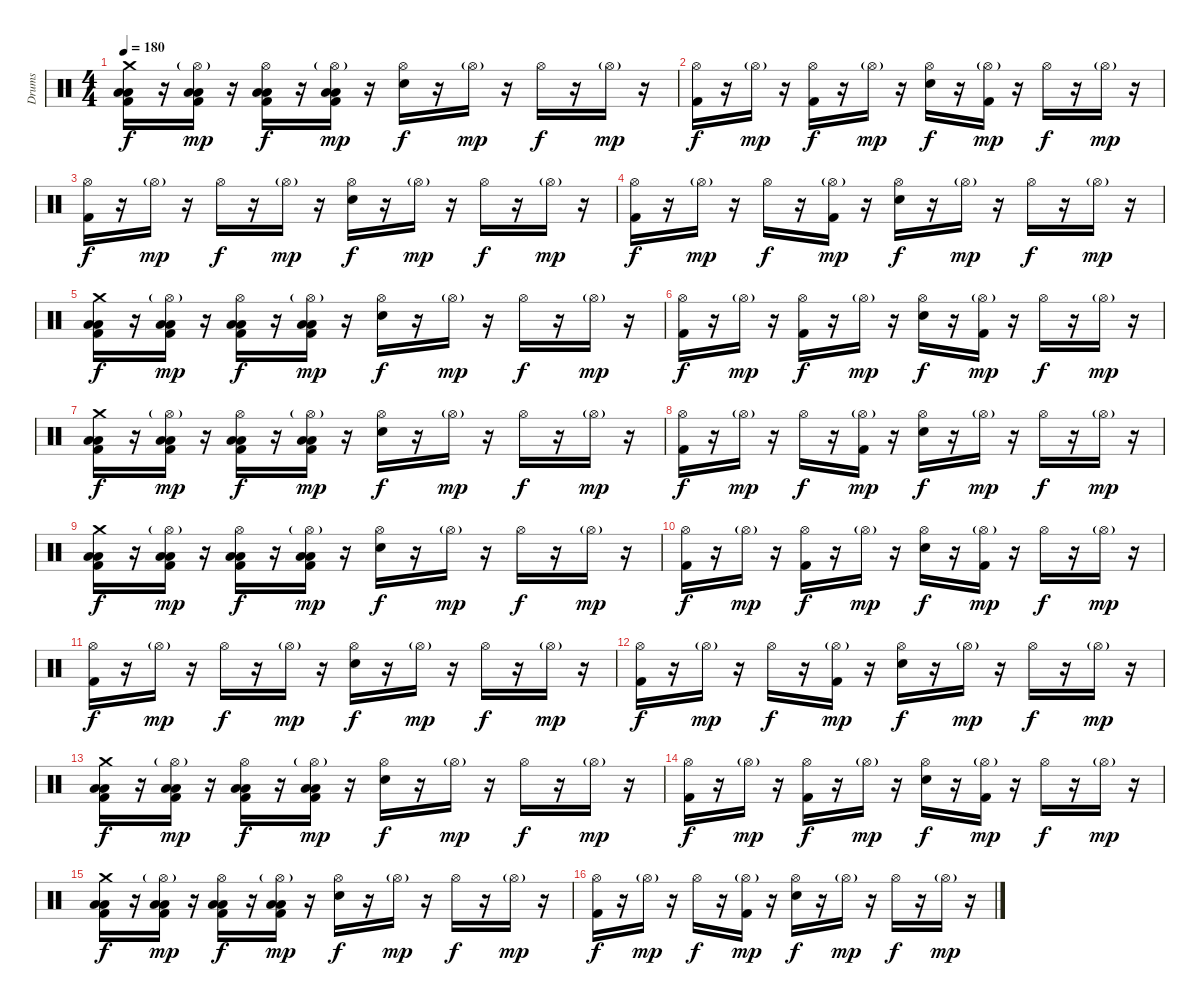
\track ("Drums" "Drums") {instrument percussion}
\staff {score}
\articulation defaults
\ts (4 4)
\tempo 180
\clef neutral
\ks c
("Crash medium (hit)" "Kick (hit) 2" "Low Floor Tom (hit)" "Low Tom (hit)").16{dy f} r.16 ("Hi-Hat (open)"{g} "Kick (hit) 2" "Low Floor Tom (hit)" "Low Tom (hit)").16{dy mp} r.16 ("Hi-Hat (open)" "Kick (hit) 2" "Low Floor Tom (hit)" "Low Tom (hit)").16{dy f} r.16 ("Hi-Hat (open)"{g} "Kick (hit) 2" "Low Floor Tom (hit)" "Low Tom (hit)").16{dy mp} r.16 ("Hi-Hat (open)" "Electric Snare (hit)").16{dy f} r.16 "Hi-Hat (open)"{g}.16{dy mp} r.16 "Hi-Hat (open)".16{dy f} r.16 "Hi-Hat (open)"{g}.16{dy mp} r.16 |
("Hi-Hat (open)" "Kick (hit) 2").16{dy f} r.16 "Hi-Hat (open)"{g}.16{dy mp} r.16 ("Hi-Hat (open)" "Kick (hit) 2").16{dy f} r.16 "Hi-Hat (open)"{g}.16{dy mp} r.16 ("Hi-Hat (open)" "Electric Snare (hit)").16{dy f} r.16 ("Hi-Hat (open)"{g} "Kick (hit) 2").16{dy mp} r.16 "Hi-Hat (open)".16{dy f} r.16 "Hi-Hat (open)"{g}.16{dy mp} r.16 |
("Hi-Hat (open)" "Kick (hit) 2").16{dy f} r.16 "Hi-Hat (open)"{g}.16{dy mp} r.16 "Hi-Hat (open)".16{dy f} r.16 "Hi-Hat (open)"{g}.16{dy mp} r.16 ("Hi-Hat (open)" "Electric Snare (hit)").16{dy f} r.16 "Hi-Hat (open)"{g}.16{dy mp} r.16 "Hi-Hat (open)".16{dy f} r.16 "Hi-Hat (open)"{g}.16{dy mp} r.16 |
("Hi-Hat (open)" "Kick (hit) 2").16{dy f} r.16 "Hi-Hat (open)"{g}.16{dy mp} r.16 "Hi-Hat (open)".16{dy f} r.16 ("Hi-Hat (open)"{g} "Kick (hit) 2").16{dy mp} r.16 ("Hi-Hat (open)" "Electric Snare (hit)").16{dy f} r.16 "Hi-Hat (open)"{g}.16{dy mp} r.16 "Hi-Hat (open)".16{dy f} r.16 "Hi-Hat (open)"{g}.16{dy mp} r.16 |
("Crash medium (hit)" "Kick (hit) 2" "Low Floor Tom (hit)" "Low Tom (hit)").16{dy f} r.16 ("Hi-Hat (open)"{g} "Kick (hit) 2" "Low Floor Tom (hit)" "Low Tom (hit)").16{dy mp} r.16 ("Hi-Hat (open)" "Kick (hit) 2" "Low Floor Tom (hit)" "Low Tom (hit)").16{dy f} r.16 ("Hi-Hat (open)"{g} "Kick (hit) 2" "Low Floor Tom (hit)" "Low Tom (hit)").16{dy mp} r.16 ("Hi-Hat (open)" "Electric Snare (hit)").16{dy f} r.16 "Hi-Hat (open)"{g}.16{dy mp} r.16 "Hi-Hat (open)".16{dy f} r.16 "Hi-Hat (open)"{g}.16{dy mp} r.16 |
("Hi-Hat (open)" "Kick (hit) 2").16{dy f} r.16 "Hi-Hat (open)"{g}.16{dy mp} r.16 ("Hi-Hat (open)" "Kick (hit) 2").16{dy f} r.16 "Hi-Hat (open)"{g}.16{dy mp} r.16 ("Hi-Hat (open)" "Electric Snare (hit)").16{dy f} r.16 ("Hi-Hat (open)"{g} "Kick (hit) 2").16{dy mp} r.16 "Hi-Hat (open)".16{dy f} r.16 "Hi-Hat (open)"{g}.16{dy mp} r.16 |
("Crash medium (hit)" "Kick (hit) 2" "Low Floor Tom (hit)" "Low Tom (hit)").16{dy f} r.16 ("Hi-Hat (open)"{g} "Kick (hit) 2" "Low Floor Tom (hit)" "Low Tom (hit)").16{dy mp} r.16 ("Hi-Hat (open)" "Kick (hit) 2" "Low Floor Tom (hit)" "Low Tom (hit)").16{dy f} r.16 ("Hi-Hat (open)"{g} "Kick (hit) 2" "Low Floor Tom (hit)" "Low Tom (hit)").16{dy mp} r.16 ("Hi-Hat (open)" "Electric Snare (hit)").16{dy f} r.16 "Hi-Hat (open)"{g}.16{dy mp} r.16 "Hi-Hat (open)".16{dy f} r.16 "Hi-Hat (open)"{g}.16{dy mp} r.16 |
("Hi-Hat (open)" "Kick (hit) 2").16{dy f} r.16 "Hi-Hat (open)"{g}.16{dy mp} r.16 "Hi-Hat (open)".16{dy f} r.16 ("Hi-Hat (open)"{g} "Kick (hit) 2").16{dy mp} r.16 ("Hi-Hat (open)" "Electric Snare (hit)").16{dy f} r.16 "Hi-Hat (open)"{g}.16{dy mp} r.16 "Hi-Hat (open)".16{dy f} r.16 "Hi-Hat (open)"{g}.16{dy mp} r.16 |
("Crash medium (hit)" "Kick (hit) 2" "Low Floor Tom (hit)" "Low Tom (hit)").16{dy f} r.16 ("Hi-Hat (open)"{g} "Kick (hit) 2" "Low Floor Tom (hit)" "Low Tom (hit)").16{dy mp} r.16 ("Hi-Hat (open)" "Kick (hit) 2" "Low Floor Tom (hit)" "Low Tom (hit)").16{dy f} r.16 ("Hi-Hat (open)"{g} "Kick (hit) 2" "Low Floor Tom (hit)" "Low Tom (hit)").16{dy mp} r.16 ("Hi-Hat (open)" "Electric Snare (hit)").16{dy f} r.16 "Hi-Hat (open)"{g}.16{dy mp} r.16 "Hi-Hat (open)".16{dy f} r.16 "Hi-Hat (open)"{g}.16{dy mp} r.16 |
("Hi-Hat (open)" "Kick (hit) 2").16{dy f} r.16 "Hi-Hat (open)"{g}.16{dy mp} r.16 ("Hi-Hat (open)" "Kick (hit) 2").16{dy f} r.16 "Hi-Hat (open)"{g}.16{dy mp} r.16 ("Hi-Hat (open)" "Electric Snare (hit)").16{dy f} r.16 ("Hi-Hat (open)"{g} "Kick (hit) 2").16{dy mp} r.16 "Hi-Hat (open)".16{dy f} r.16 "Hi-Hat (open)"{g}.16{dy mp} r.16 |
("Hi-Hat (open)" "Kick (hit) 2").16{dy f} r.16 "Hi-Hat (open)"{g}.16{dy mp} r.16 "Hi-Hat (open)".16{dy f} r.16 "Hi-Hat (open)"{g}.16{dy mp} r.16 ("Hi-Hat (open)" "Electric Snare (hit)").16{dy f} r.16 "Hi-Hat (open)"{g}.16{dy mp} r.16 "Hi-Hat (open)".16{dy f} r.16 "Hi-Hat (open)"{g}.16{dy mp} r.16 |
("Hi-Hat (open)" "Kick (hit) 2").16{dy f} r.16 "Hi-Hat (open)"{g}.16{dy mp} r.16 "Hi-Hat (open)".16{dy f} r.16 ("Hi-Hat (open)"{g} "Kick (hit) 2").16{dy mp} r.16 ("Hi-Hat (open)" "Electric Snare (hit)").16{dy f} r.16 "Hi-Hat (open)"{g}.16{dy mp} r.16 "Hi-Hat (open)".16{dy f} r.16 "Hi-Hat (open)"{g}.16{dy mp} r.16 |
("Crash medium (hit)" "Kick (hit) 2" "Low Floor Tom (hit)" "Low Tom (hit)").16{dy f} r.16 ("Hi-Hat (open)"{g} "Kick (hit) 2" "Low Floor Tom (hit)" "Low Tom (hit)").16{dy mp} r.16 ("Hi-Hat (open)" "Kick (hit) 2" "Low Floor Tom (hit)" "Low Tom (hit)").16{dy f} r.16 ("Hi-Hat (open)"{g} "Kick (hit) 2" "Low Floor Tom (hit)" "Low Tom (hit)").16{dy mp} r.16 ("Hi-Hat (open)" "Electric Snare (hit)").16{dy f} r.16 "Hi-Hat (open)"{g}.16{dy mp} r.16 "Hi-Hat (open)".16{dy f} r.16 "Hi-Hat (open)"{g}.16{dy mp} r.16 |
("Hi-Hat (open)" "Kick (hit) 2").16{dy f} r.16 "Hi-Hat (open)"{g}.16{dy mp} r.16 ("Hi-Hat (open)" "Kick (hit) 2").16{dy f} r.16 "Hi-Hat (open)"{g}.16{dy mp} r.16 ("Hi-Hat (open)" "Electric Snare (hit)").16{dy f} r.16 ("Hi-Hat (open)"{g} "Kick (hit) 2").16{dy mp} r.16 "Hi-Hat (open)".16{dy f} r.16 "Hi-Hat (open)"{g}.16{dy mp} r.16 |
("Crash medium (hit)" "Kick (hit) 2" "Low Floor Tom (hit)" "Low Tom (hit)").16{dy f} r.16 ("Hi-Hat (open)"{g} "Kick (hit) 2" "Low Floor Tom (hit)" "Low Tom (hit)").16{dy mp} r.16 ("Hi-Hat (open)" "Kick (hit) 2" "Low Floor Tom (hit)" "Low Tom (hit)").16{dy f} r.16 ("Hi-Hat (open)"{g} "Kick (hit) 2" "Low Floor Tom (hit)" "Low Tom (hit)").16{dy mp} r.16 ("Hi-Hat (open)" "Electric Snare (hit)").16{dy f} r.16 "Hi-Hat (open)"{g}.16{dy mp} r.16 "Hi-Hat (open)".16{dy f} r.16 "Hi-Hat (open)"{g}.16{dy mp} r.16 |
("Hi-Hat (open)" "Kick (hit) 2").16{dy f} r.16 "Hi-Hat (open)"{g}.16{dy mp} r.16 "Hi-Hat (open)".16{dy f} r.16 ("Hi-Hat (open)"{g} "Kick (hit) 2").16{dy mp} r.16 ("Hi-Hat (open)" "Electric Snare (hit)").16{dy f} r.16 "Hi-Hat (open)"{g}.16{dy mp} r.16 "Hi-Hat (open)".16{dy f} r.16 "Hi-Hat (open)"{g}.16{dy mp} r.16
